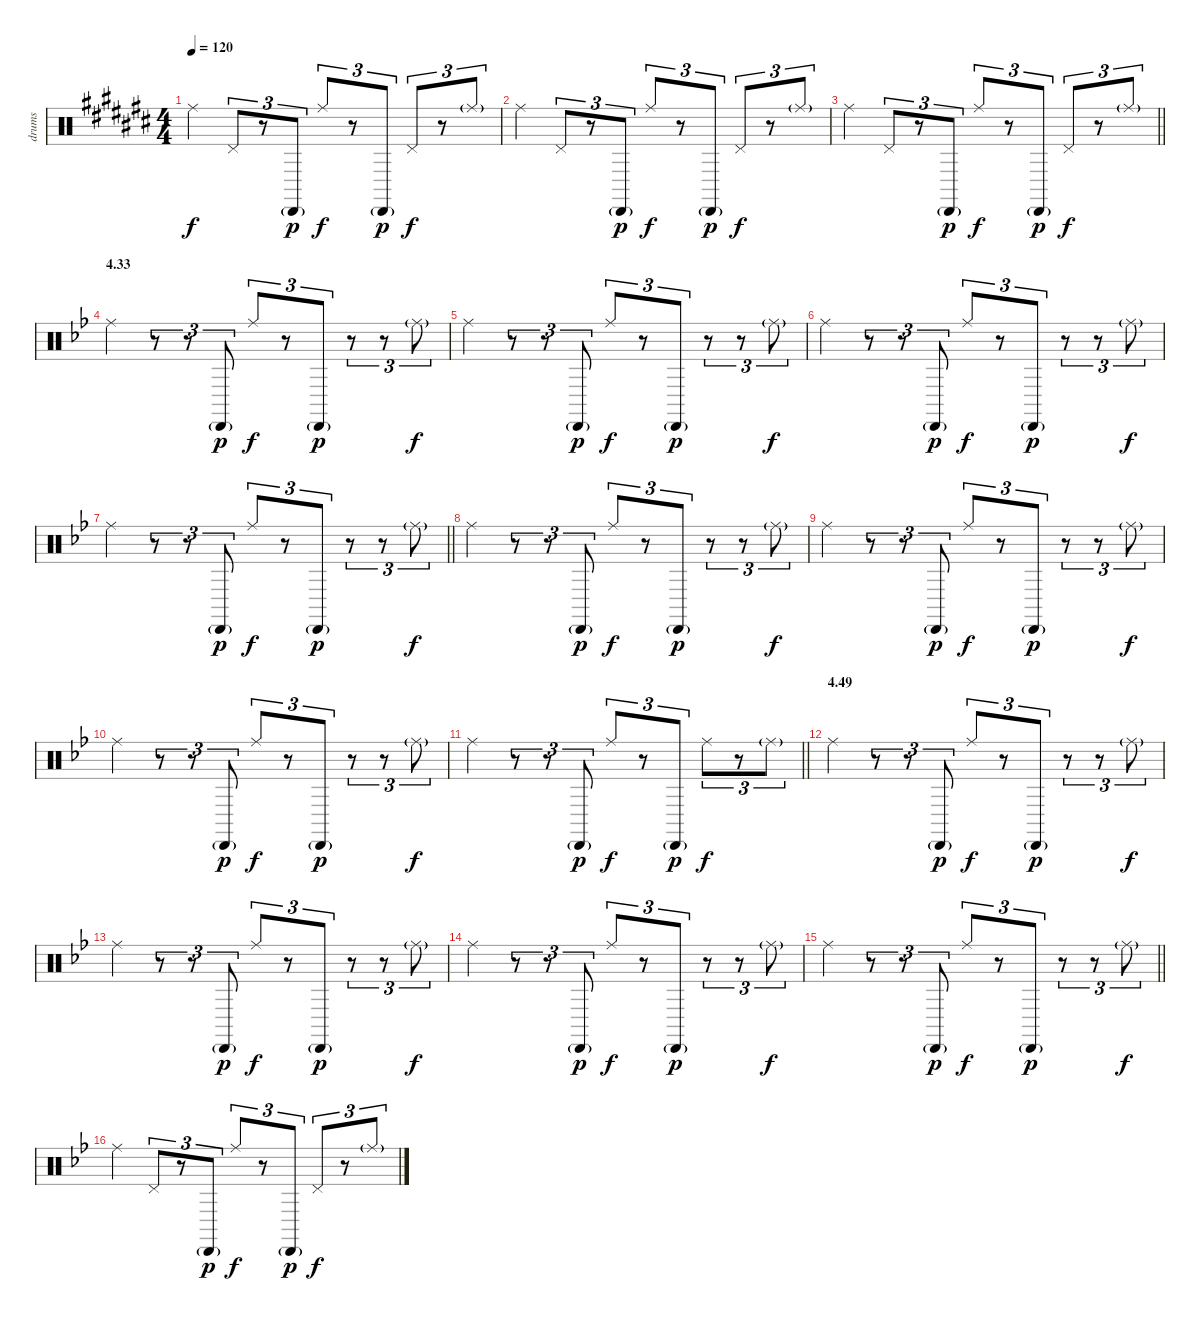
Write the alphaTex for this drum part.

\track ("drums" "drums") {instrument percussion}
\staff {score}
\articulation defaults
\ts (4 4)
\tempo 120
\clef neutral
\ks c# "Ride (middle)".4{dy f} "Pedal Hi-Hat (hit)".8{tu (3 2)}
r.8{tu (3 2)} "Cabasa (hit)"{g}.8{tu (3 2) dy p} "Ride (middle)".8{tu (3 2) dy f} r.8{tu (3 2)} "Cabasa (hit)"{g}.8{tu (3 2) dy p} "Pedal Hi-Hat (hit)".8{tu (3 2) dy f} r.8{tu (3 2)} "Ride (middle)"{g}.8{tu (3 2)} |
"Ride (middle)".4 "Pedal Hi-Hat (hit)".8{tu (3 2)} r.8{tu (3 2)} "Cabasa (hit)"{g}.8{tu (3 2) dy p} "Ride (middle)".8{tu (3 2) dy f} r.8{tu (3 2)} "Cabasa (hit)"{g}.8{tu (3 2) dy p} "Pedal Hi-Hat (hit)".8{tu (3 2) dy f} r.8{tu (3 2)} "Ride (middle)"{g}.8{tu (3 2)} |
\barLineRight lightlight "Ride (middle)".4 "Pedal Hi-Hat (hit)".8{tu (3 2)}
r.8{tu (3 2)} "Cabasa (hit)"{g}.8{tu (3 2) dy p} "Ride (middle)".8{tu (3 2) dy f} r.8{tu (3 2)} "Cabasa (hit)"{g}.8{tu (3 2) dy p} "Pedal Hi-Hat (hit)".8{tu (3 2) dy f} r.8{tu (3 2)} "Ride (middle)"{g}.8{tu (3 2)} |
\section ("" "4.33")
\ks bb "Ride (middle)".4
r.8{tu (3 2)} r.8{tu (3 2)} "Cabasa (hit)"{g}.8{tu (3 2) dy p} "Ride (middle)".8{tu (3 2) dy f} r.8{tu (3 2)} "Cabasa (hit)"{g}.8{tu (3 2) dy p} r.8{tu (3 2)} r.8{tu (3 2)} "Ride (middle)"{g}.8{tu (3 2) dy f} |
"Ride (middle)".4 r.8{tu (3 2)} r.8{tu (3 2)} "Cabasa (hit)"{g}.8{tu (3 2) dy p} "Ride (middle)".8{tu (3 2) dy f} r.8{tu (3 2)} "Cabasa (hit)"{g}.8{tu (3 2) dy p} r.8{tu (3 2)} r.8{tu (3 2)} "Ride (middle)"{g}.8{tu (3 2) dy f} |
"Ride (middle)".4 r.8{tu (3 2)} r.8{tu (3 2)} "Cabasa (hit)"{g}.8{tu (3 2) dy p} "Ride (middle)".8{tu (3 2) dy f} r.8{tu (3 2)} "Cabasa (hit)"{g}.8{tu (3 2) dy p} r.8{tu (3 2)} r.8{tu (3 2)} "Ride (middle)"{g}.8{tu (3 2) dy f} |
\barLineRight lightlight "Ride (middle)".4
r.8{tu (3 2)} r.8{tu (3 2)} "Cabasa (hit)"{g}.8{tu (3 2) dy p} "Ride (middle)".8{tu (3 2) dy f} r.8{tu (3 2)} "Cabasa (hit)"{g}.8{tu (3 2) dy p} r.8{tu (3 2)} r.8{tu (3 2)} "Ride (middle)"{g}.8{tu (3 2) dy f} |
"Ride (middle)".4 r.8{tu (3 2)} r.8{tu (3 2)} "Cabasa (hit)"{g}.8{tu (3 2) dy p} "Ride (middle)".8{tu (3 2) dy f} r.8{tu (3 2)} "Cabasa (hit)"{g}.8{tu (3 2) dy p} r.8{tu (3 2)} r.8{tu (3 2)} "Ride (middle)"{g}.8{tu (3 2) dy f} |
"Ride (middle)".4 r.8{tu (3 2)} r.8{tu (3 2)} "Cabasa (hit)"{g}.8{tu (3 2) dy p} "Ride (middle)".8{tu (3 2) dy f} r.8{tu (3 2)} "Cabasa (hit)"{g}.8{tu (3 2) dy p} r.8{tu (3 2)} r.8{tu (3 2)} "Ride (middle)"{g}.8{tu (3 2) dy f} |
"Ride (middle)".4 r.8{tu (3 2)} r.8{tu (3 2)} "Cabasa (hit)"{g}.8{tu (3 2) dy p} "Ride (middle)".8{tu (3 2) dy f} r.8{tu (3 2)} "Cabasa (hit)"{g}.8{tu (3 2) dy p} r.8{tu (3 2)} r.8{tu (3 2)} "Ride (middle)"{g}.8{tu (3 2) dy f} |
\barLineRight lightlight "Ride (middle)".4
r.8{tu (3 2)} r.8{tu (3 2)} "Cabasa (hit)"{g}.8{tu (3 2) dy p} "Ride (middle)".8{tu (3 2) dy f} r.8{tu (3 2)} "Cabasa (hit)"{g}.8{tu (3 2) dy p} "Ride (middle)".8{tu (3 2) dy f} r.8{tu (3 2)} "Ride (middle)"{g}.8{tu (3 2)} |
\section ("" "4.49")
"Ride (middle)".4 r.8{tu (3 2)} r.8{tu (3 2)} "Cabasa (hit)"{g}.8{tu (3 2) dy p} "Ride (middle)".8{tu (3 2) dy f} r.8{tu (3 2)} "Cabasa (hit)"{g}.8{tu (3 2) dy p} r.8{tu (3 2)} r.8{tu (3 2)} "Ride (middle)"{g}.8{tu (3 2) dy f} |
"Ride (middle)".4 r.8{tu (3 2)} r.8{tu (3 2)} "Cabasa (hit)"{g}.8{tu (3 2) dy p} "Ride (middle)".8{tu (3 2) dy f} r.8{tu (3 2)} "Cabasa (hit)"{g}.8{tu (3 2) dy p} r.8{tu (3 2)} r.8{tu (3 2)} "Ride (middle)"{g}.8{tu (3 2) dy f} |
"Ride (middle)".4 r.8{tu (3 2)} r.8{tu (3 2)} "Cabasa (hit)"{g}.8{tu (3 2) dy p} "Ride (middle)".8{tu (3 2) dy f} r.8{tu (3 2)} "Cabasa (hit)"{g}.8{tu (3 2) dy p} r.8{tu (3 2)} r.8{tu (3 2)} "Ride (middle)"{g}.8{tu (3 2) dy f} |
\barLineRight lightlight "Ride (middle)".4
r.8{tu (3 2)} r.8{tu (3 2)} "Cabasa (hit)"{g}.8{tu (3 2) dy p} "Ride (middle)".8{tu (3 2) dy f} r.8{tu (3 2)} "Cabasa (hit)"{g}.8{tu (3 2) dy p} r.8{tu (3 2)} r.8{tu (3 2)} "Ride (middle)"{g}.8{tu (3 2) dy f} |
"Ride (middle)".4 "Pedal Hi-Hat (hit)".8{tu (3 2)} r.8{tu (3 2)} "Cabasa (hit)"{g}.8{tu (3 2) dy p} "Ride (middle)".8{tu (3 2) dy f} r.8{tu (3 2)} "Cabasa (hit)"{g}.8{tu (3 2) dy p} "Pedal Hi-Hat (hit)".8{tu (3 2) dy f} r.8{tu (3 2)} "Ride (middle)"{g}.8{tu (3 2)}
